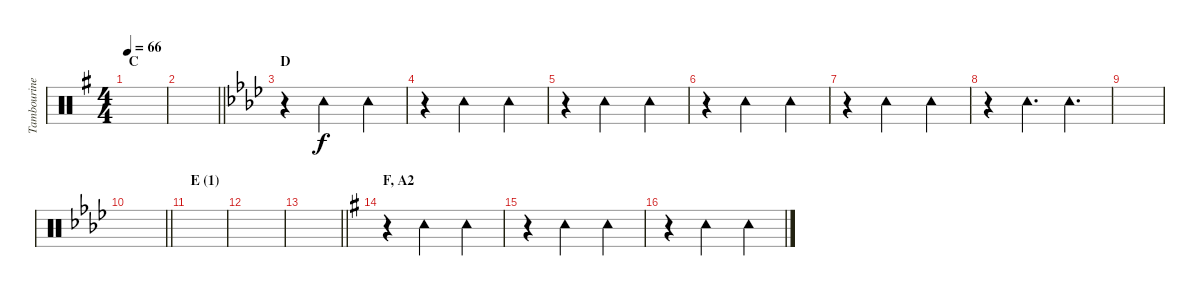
\track ("Tambourine: Ray Copoper" "Tambourine") {instrument percussion}
\staff {score}
\articulation defaults
\ts (4 4)
\section ("" "C")
\tempo 66
\clef neutral
\ks g
|
\barLineRight lightlight
|
\section ("" "D")
\ks ab
r.4 "Tambourine (hit)".2 "Tambourine (hit)".4 |
r.4 "Tambourine (hit)".2 "Tambourine (hit)".4 |
r.4 "Tambourine (hit)".2 "Tambourine (hit)".4 |
r.4 "Tambourine (hit)".2 "Tambourine (hit)".4 |
r.4 "Tambourine (hit)".2 "Tambourine (hit)".4 |
r.4 "Tambourine (hit)".4{d} "Tambourine (hit)".4{d} |
|
\barLineRight lightlight
|
\section ("" "E (1)")
|
|
\barLineRight lightlight
|
\section ("" "F, A2")
\ks g
r.4 "Tambourine (hit)".2 "Tambourine (hit)".4 |
r.4 "Tambourine (hit)".2 "Tambourine (hit)".4 |
r.4 "Tambourine (hit)".2 "Tambourine (hit)".4
